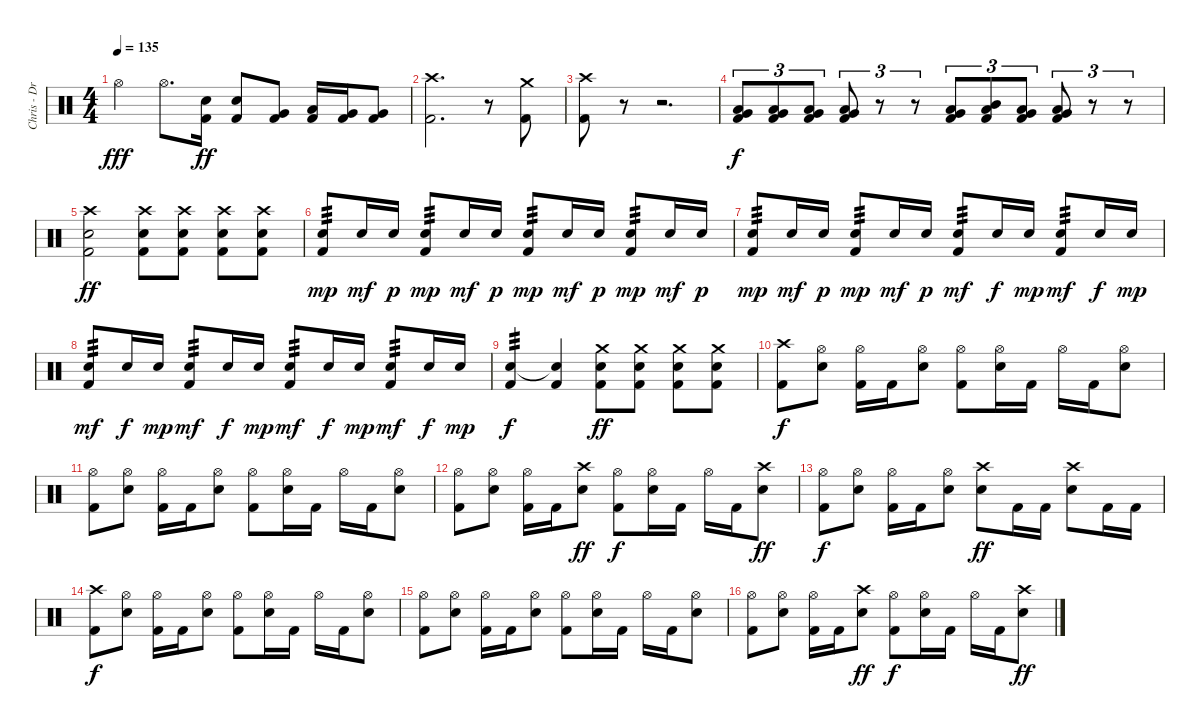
\track ("Chris - Drums" "Chris - Dr") {instrument percussion}
\staff {score}
\articulation defaults
\ts (4 4)
\tempo 135
\clef neutral
\ks c "Hi-Hat (open)".4{dy fff} "Hi-Hat (open)".8{d}
("Electric Snare (hit)" "Kick (hit) 2").16{dy ff} ("Electric Snare (hit)" "Kick (hit) 2").8 ("Very Low Tom (hit)" "Kick (hit) 2").8 ("Low Tom (hit)" "Kick (hit) 2").16 ("Very Low Tom (hit)" "Kick (hit) 2").16 ("Very Low Tom (hit)" "Kick (hit) 2").8 |
("Crash high (hit)" "Kick (hit) 2").2{d} r.8 ("Crash medium (hit)" "Kick (hit) 2").8 |
("Crash high (hit)" "Kick (hit) 2").8 r.8{volume 0} r.2{d} |
("Very Low Tom (hit)" "Low Tom (hit)" "Kick (hit) 2").8{tu (3 2) dy f volume 13} ("Very Low Tom (hit)" "Low Tom (hit)" "Kick (hit) 2").8{tu (3 2)} ("Very Low Tom (hit)" "Low Tom (hit)" "Kick (hit) 2").8{tu (3 2)} ("Very Low Tom (hit)" "Low Tom (hit)" "Kick (hit) 2").8{tu (3 2)} r.8{tu (3 2)} r.8{tu (3 2)} ("Very Low Tom (hit)" "Low Tom (hit)" "Kick (hit) 2").8{tu (3 2)} ("Low Tom (hit)" "Mid Tom (hit)" "Kick (hit) 2").8{tu (3 2)} ("Very Low Tom (hit)" "Low Tom (hit)" "Kick (hit) 2").8{tu (3 2)} ("Low Floor Tom (hit)" "Very Low Tom (hit)" "Kick (hit) 2").8{tu (3 2)} r.8{tu (3 2)} r.8{tu (3 2)} |
("Crash high (hit)" "Electric Snare (hit)" "Kick (hit) 2").2{dy ff} ("Crash high (hit)" "Electric Snare (hit)" "Kick (hit) 2").8 ("Crash high (hit)" "Electric Snare (hit)" "Kick (hit) 2").8 ("Crash high (hit)" "Electric Snare (hit)" "Kick (hit) 2").8 ("Crash high (hit)" "Electric Snare (hit)" "Kick (hit) 2").8 |
("Electric Snare (hit)" "Kick (hit) 2").8{tp 3 dy mp} "Electric Snare (hit)".16{dy mf} "Electric Snare (hit)".16{dy p} ("Electric Snare (hit)" "Kick (hit) 2").8{tp 3 dy mp} "Electric Snare (hit)".16{dy mf} "Electric Snare (hit)".16{dy p} ("Electric Snare (hit)" "Kick (hit) 2").8{tp 3 dy mp} "Electric Snare (hit)".16{dy mf} "Electric Snare (hit)".16{dy p} ("Electric Snare (hit)" "Kick (hit) 2").8{tp 3 dy mp} "Electric Snare (hit)".16{dy mf} "Electric Snare (hit)".16{dy p} |
("Electric Snare (hit)" "Kick (hit) 2").8{tp 3 dy mp} "Electric Snare (hit)".16{dy mf} "Electric Snare (hit)".16{dy p} ("Electric Snare (hit)" "Kick (hit) 2").8{tp 3 dy mp} "Electric Snare (hit)".16{dy mf} "Electric Snare (hit)".16{dy p} ("Electric Snare (hit)" "Kick (hit) 2").8{tp 3 dy mf} "Electric Snare (hit)".16{dy f} "Electric Snare (hit)".16{dy mp} ("Electric Snare (hit)" "Kick (hit) 2").8{tp 3 dy mf} "Electric Snare (hit)".16{dy f} "Electric Snare (hit)".16{dy mp} |
("Electric Snare (hit)" "Kick (hit) 2").8{tp 3 dy mf} "Electric Snare (hit)".16{dy f} "Electric Snare (hit)".16{dy mp} ("Electric Snare (hit)" "Kick (hit) 2").8{tp 3 dy mf} "Electric Snare (hit)".16{dy f} "Electric Snare (hit)".16{dy mp} ("Electric Snare (hit)" "Kick (hit) 2").8{tp 3 dy mf} "Electric Snare (hit)".16{dy f} "Electric Snare (hit)".16{dy mp} ("Electric Snare (hit)" "Kick (hit) 2").8{tp 3 dy mf} "Electric Snare (hit)".16{dy f} "Electric Snare (hit)".16{dy mp} |
("Electric Snare (hit)" "Kick (hit) 2").4{tp 3 dy f} ("Electric Snare (hit)"{t} "Kick (hit) 2").4 ("Crash medium (hit)" "Electric Snare (hit)" "Kick (hit) 2").8{dy ff} ("Crash medium (hit)" "Electric Snare (hit)" "Kick (hit) 2").8 ("Crash medium (hit)" "Electric Snare (hit)" "Kick (hit) 2").8 ("Crash medium (hit)" "Electric Snare (hit)" "Kick (hit) 2").8 |
("Crash high (hit)" "Kick (hit) 2").8{dy f} ("Hi-Hat (open)" "Electric Snare (hit)").8 ("Hi-Hat (open)" "Kick (hit) 2").16 "Kick (hit) 2".16 ("Hi-Hat (open)" "Electric Snare (hit)").8 ("Hi-Hat (open)" "Kick (hit) 2").8 ("Hi-Hat (open)" "Electric Snare (hit)").16 "Kick (hit) 2".16 "Hi-Hat (open)".16 "Kick (hit) 2".16 ("Hi-Hat (open)" "Electric Snare (hit)").8 |
("Hi-Hat (open)" "Kick (hit) 2").8 ("Hi-Hat (open)" "Electric Snare (hit)").8 ("Hi-Hat (open)" "Kick (hit) 2").16 "Kick (hit) 2".16 ("Hi-Hat (open)" "Electric Snare (hit)").8 ("Hi-Hat (open)" "Kick (hit) 2").8 ("Hi-Hat (open)" "Electric Snare (hit)").16 "Kick (hit) 2".16 "Hi-Hat (open)".16 "Kick (hit) 2".16 ("Hi-Hat (open)" "Electric Snare (hit)").8 |
("Hi-Hat (open)" "Kick (hit) 2").8 ("Hi-Hat (open)" "Electric Snare (hit)").8 ("Hi-Hat (open)" "Kick (hit) 2").16 "Kick (hit) 2".16 ("Crash high (hit)" "Electric Snare (hit)").8{dy ff} ("Hi-Hat (open)" "Kick (hit) 2").8{dy f} ("Hi-Hat (open)" "Electric Snare (hit)").16 "Kick (hit) 2".16 "Hi-Hat (open)".16 "Kick (hit) 2".16 ("Crash high (hit)" "Electric Snare (hit)").8{dy ff} |
("Hi-Hat (open)" "Kick (hit) 2").8{dy f} ("Hi-Hat (open)" "Electric Snare (hit)").8 ("Hi-Hat (open)" "Kick (hit) 2").16 "Kick (hit) 2".16 ("Hi-Hat (open)" "Electric Snare (hit)").8 ("Crash high (hit)" "Electric Snare (hit)").8{dy ff} "Kick (hit) 2".16 "Kick (hit) 2".16 ("Crash high (hit)" "Electric Snare (hit)").8 "Kick (hit) 2".16 "Kick (hit) 2".16 |
("Crash high (hit)" "Kick (hit) 2").8{dy f} ("Hi-Hat (open)" "Electric Snare (hit)").8 ("Hi-Hat (open)" "Kick (hit) 2").16 "Kick (hit) 2".16 ("Hi-Hat (open)" "Electric Snare (hit)").8 ("Hi-Hat (open)" "Kick (hit) 2").8 ("Hi-Hat (open)" "Electric Snare (hit)").16 "Kick (hit) 2".16 "Hi-Hat (open)".16 "Kick (hit) 2".16 ("Hi-Hat (open)" "Electric Snare (hit)").8 |
("Hi-Hat (open)" "Kick (hit) 2").8 ("Hi-Hat (open)" "Electric Snare (hit)").8 ("Hi-Hat (open)" "Kick (hit) 2").16 "Kick (hit) 2".16 ("Hi-Hat (open)" "Electric Snare (hit)").8 ("Hi-Hat (open)" "Kick (hit) 2").8 ("Hi-Hat (open)" "Electric Snare (hit)").16 "Kick (hit) 2".16 "Hi-Hat (open)".16 "Kick (hit) 2".16 ("Hi-Hat (open)" "Electric Snare (hit)").8 |
("Hi-Hat (open)" "Kick (hit) 2").8 ("Hi-Hat (open)" "Electric Snare (hit)").8 ("Hi-Hat (open)" "Kick (hit) 2").16 "Kick (hit) 2".16 ("Crash high (hit)" "Electric Snare (hit)").8{dy ff} ("Hi-Hat (open)" "Kick (hit) 2").8{dy f} ("Hi-Hat (open)" "Electric Snare (hit)").16 "Kick (hit) 2".16 "Hi-Hat (open)".16 "Kick (hit) 2".16 ("Crash high (hit)" "Electric Snare (hit)").8{dy ff}
